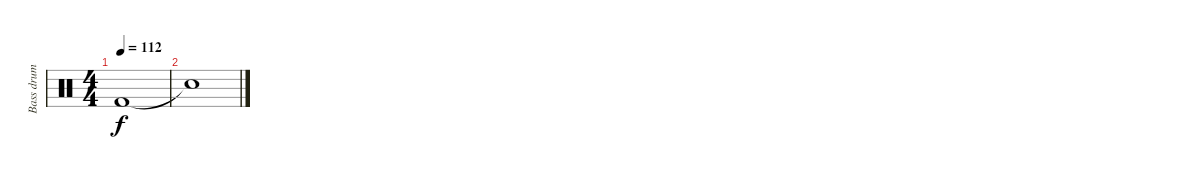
\track ("Bass drum" "Bass drum") {instrument percussion}
\staff {score}
\articulation defaults
\ts (4 4)
\tempo 112
\clef neutral
\ks c "Kick (hit) 2".1{dy f}
|
"Snare (hit)"{t}.1
